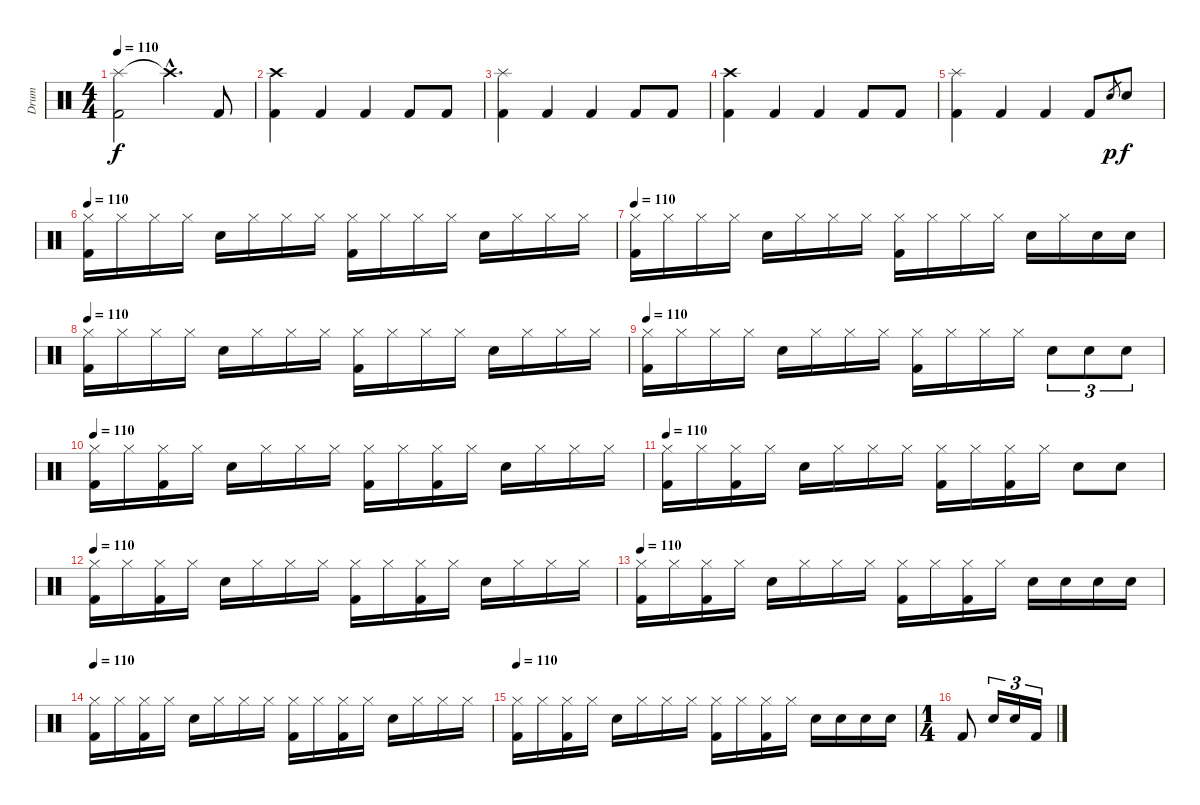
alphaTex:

\track ("Drum" "Drum") {instrument percussion}
\staff {score}
\articulation defaults
\ts (4 4)
\tempo 110
\clef neutral
\ks c
("Splash (hit)" "Kick (hit) 2").2{dy f} "Crash high (hit)"{hac t}.4{d} "Kick (hit) 2".8 |
("Crash high (hit)" "Kick (hit) 2").4 "Kick (hit) 2".4 "Kick (hit) 2".4 "Kick (hit) 2".8 "Kick (hit) 2".8 |
("Splash (hit)" "Kick (hit) 2").4 "Kick (hit) 2".4 "Kick (hit) 2".4 "Kick (hit) 2".8 "Kick (hit) 2".8 |
("Crash high (hit)" "Kick (hit) 2").4 "Kick (hit) 2".4 "Kick (hit) 2".4 "Kick (hit) 2".8 "Kick (hit) 2".8 |
("Splash (hit)" "Kick (hit) 2").4 "Kick (hit) 2".4 "Kick (hit) 2".4 "Kick (hit) 2".8 "Electric Snare (hit)".8{gr dy p} "Electric Snare (hit)".8{dy f} |
\tempo 110
("Hi-Hat (closed)" "Kick (hit) 2").16{volume 9} "Hi-Hat (closed)".16 "Hi-Hat (closed)".16 "Hi-Hat (closed)".16 "Electric Snare (hit)".16 "Hi-Hat (closed)".16 "Hi-Hat (closed)".16 "Hi-Hat (closed)".16 ("Hi-Hat (closed)" "Kick (hit) 2").16 "Hi-Hat (closed)".16 "Hi-Hat (closed)".16 "Hi-Hat (closed)".16 "Electric Snare (hit)".16 "Hi-Hat (closed)".16 "Hi-Hat (closed)".16 "Hi-Hat (closed)".16 |
\tempo 110
("Hi-Hat (closed)" "Kick (hit) 2").16{volume 9} "Hi-Hat (closed)".16 "Hi-Hat (closed)".16 "Hi-Hat (closed)".16 "Electric Snare (hit)".16 "Hi-Hat (closed)".16 "Hi-Hat (closed)".16 "Hi-Hat (closed)".16 ("Hi-Hat (closed)" "Kick (hit) 2").16 "Hi-Hat (closed)".16 "Hi-Hat (closed)".16 "Hi-Hat (closed)".16 "Electric Snare (hit)".16 "Hi-Hat (closed)".16 "Electric Snare (hit)".16 "Electric Snare (hit)".16 |
\tempo 110
("Hi-Hat (closed)" "Kick (hit) 2").16{volume 9} "Hi-Hat (closed)".16 "Hi-Hat (closed)".16 "Hi-Hat (closed)".16 "Electric Snare (hit)".16 "Hi-Hat (closed)".16 "Hi-Hat (closed)".16 "Hi-Hat (closed)".16 ("Hi-Hat (closed)" "Kick (hit) 2").16 "Hi-Hat (closed)".16 "Hi-Hat (closed)".16 "Hi-Hat (closed)".16 "Electric Snare (hit)".16 "Hi-Hat (closed)".16 "Hi-Hat (closed)".16 "Hi-Hat (closed)".16 |
\tempo 110
("Hi-Hat (closed)" "Kick (hit) 2").16{volume 9} "Hi-Hat (closed)".16 "Hi-Hat (closed)".16 "Hi-Hat (closed)".16 "Electric Snare (hit)".16 "Hi-Hat (closed)".16 "Hi-Hat (closed)".16 "Hi-Hat (closed)".16 ("Hi-Hat (closed)" "Kick (hit) 2").16 "Hi-Hat (closed)".16 "Hi-Hat (closed)".16 "Hi-Hat (closed)".16 "Electric Snare (hit)".8{tu (3 2)} "Electric Snare (hit)".8{tu (3 2)} "Electric Snare (hit)".8{tu (3 2)} |
\tempo 110
("Hi-Hat (closed)" "Kick (hit) 2").16{volume 9} "Hi-Hat (closed)".16 ("Hi-Hat (closed)" "Kick (hit) 2").16 "Hi-Hat (closed)".16 "Electric Snare (hit)".16 "Hi-Hat (closed)".16 "Hi-Hat (closed)".16 "Hi-Hat (closed)".16 ("Hi-Hat (closed)" "Kick (hit) 2").16 "Hi-Hat (closed)".16 ("Hi-Hat (closed)" "Kick (hit) 2").16 "Hi-Hat (closed)".16 "Electric Snare (hit)".16 "Hi-Hat (closed)".16 "Hi-Hat (closed)".16 "Hi-Hat (closed)".16 |
\tempo 110
("Hi-Hat (closed)" "Kick (hit) 2").16{volume 9} "Hi-Hat (closed)".16 ("Hi-Hat (closed)" "Kick (hit) 2").16 "Hi-Hat (closed)".16 "Electric Snare (hit)".16 "Hi-Hat (closed)".16 "Hi-Hat (closed)".16 "Hi-Hat (closed)".16 ("Hi-Hat (closed)" "Kick (hit) 2").16 "Hi-Hat (closed)".16 ("Hi-Hat (closed)" "Kick (hit) 2").16 "Hi-Hat (closed)".16 "Electric Snare (hit)".8 "Electric Snare (hit)".8 |
\tempo 110
("Hi-Hat (closed)" "Kick (hit) 2").16{volume 9} "Hi-Hat (closed)".16 ("Hi-Hat (closed)" "Kick (hit) 2").16 "Hi-Hat (closed)".16 "Electric Snare (hit)".16 "Hi-Hat (closed)".16 "Hi-Hat (closed)".16 "Hi-Hat (closed)".16 ("Hi-Hat (closed)" "Kick (hit) 2").16 "Hi-Hat (closed)".16 ("Hi-Hat (closed)" "Kick (hit) 2").16 "Hi-Hat (closed)".16 "Electric Snare (hit)".16 "Hi-Hat (closed)".16 "Hi-Hat (closed)".16 "Hi-Hat (closed)".16 |
\tempo 110
("Hi-Hat (closed)" "Kick (hit) 2").16{volume 9} "Hi-Hat (closed)".16 ("Hi-Hat (closed)" "Kick (hit) 2").16 "Hi-Hat (closed)".16 "Electric Snare (hit)".16 "Hi-Hat (closed)".16 "Hi-Hat (closed)".16 "Hi-Hat (closed)".16 ("Hi-Hat (closed)" "Kick (hit) 2").16 "Hi-Hat (closed)".16 ("Hi-Hat (closed)" "Kick (hit) 2").16 "Hi-Hat (closed)".16 "Electric Snare (hit)".16 "Electric Snare (hit)".16 "Electric Snare (hit)".16 "Electric Snare (hit)".16 |
\tempo 110
("Hi-Hat (closed)" "Kick (hit) 2").16{volume 9} "Hi-Hat (closed)".16 ("Hi-Hat (closed)" "Kick (hit) 2").16 "Hi-Hat (closed)".16 "Electric Snare (hit)".16 "Hi-Hat (closed)".16 "Hi-Hat (closed)".16 "Hi-Hat (closed)".16 ("Hi-Hat (closed)" "Kick (hit) 2").16 "Hi-Hat (closed)".16 ("Hi-Hat (closed)" "Kick (hit) 2").16 "Hi-Hat (closed)".16 "Electric Snare (hit)".16 "Hi-Hat (closed)".16 "Hi-Hat (closed)".16 "Hi-Hat (closed)".16 |
\tempo 110
("Hi-Hat (closed)" "Kick (hit) 2").16{volume 9} "Hi-Hat (closed)".16 ("Hi-Hat (closed)" "Kick (hit) 2").16 "Hi-Hat (closed)".16 "Electric Snare (hit)".16 "Hi-Hat (closed)".16 "Hi-Hat (closed)".16 "Hi-Hat (closed)".16 ("Hi-Hat (closed)" "Kick (hit) 2").16 "Hi-Hat (closed)".16 ("Hi-Hat (closed)" "Kick (hit) 2").16 "Hi-Hat (closed)".16 "Electric Snare (hit)".16 "Electric Snare (hit)".16 "Electric Snare (hit)".16 "Electric Snare (hit)".16 |
\ts (1 4)
"Kick (hit) 2".8 "Electric Snare (hit)".16{tu (3 2)} "Electric Snare (hit)".16{tu (3 2)} "Kick (hit) 2".16{tu (3 2)}
